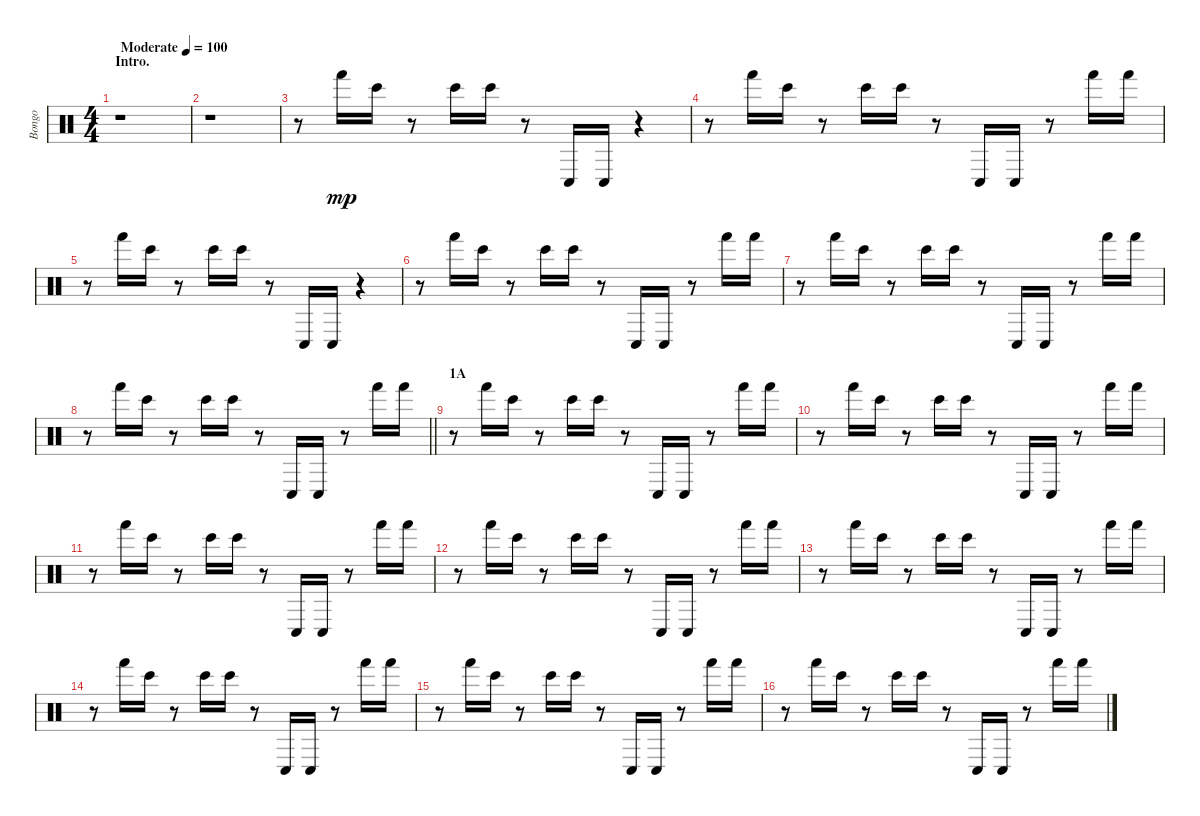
\track ("Bongo" "Bongo") {instrument percussion}
\staff {score}
\articulation defaults
\ts (4 4)
\section ("" "Intro.")
\tempo (100 "Moderate")
\clef neutral
\ks c
r.1{dy mp} |
r.1 |
r.8 "Hand (hit)".16 "Bongo High (hit)".16 r.8 "Bongo High (hit)".16 "Bongo High (hit)".16 r.8 "Conga low (hit)".16 "Conga low (hit)".16 r.4 |
r.8 "Hand (hit)".16 "Bongo High (hit)".16 r.8 "Bongo High (hit)".16 "Bongo High (hit)".16 r.8 "Conga low (hit)".16 "Conga low (hit)".16 r.8 "Hand (hit)".16 "Hand (hit)".16 |
r.8 "Hand (hit)".16 "Bongo High (hit)".16 r.8 "Bongo High (hit)".16 "Bongo High (hit)".16 r.8 "Conga low (hit)".16 "Conga low (hit)".16 r.4 |
r.8 "Hand (hit)".16 "Bongo High (hit)".16 r.8 "Bongo High (hit)".16 "Bongo High (hit)".16 r.8 "Conga low (hit)".16 "Conga low (hit)".16 r.8 "Hand (hit)".16 "Hand (hit)".16 |
r.8 "Hand (hit)".16 "Bongo High (hit)".16 r.8 "Bongo High (hit)".16 "Bongo High (hit)".16 r.8 "Conga low (hit)".16 "Conga low (hit)".16 r.8 "Hand (hit)".16 "Hand (hit)".16 |
\barLineRight lightlight
r.8 "Hand (hit)".16 "Bongo High (hit)".16 r.8 "Bongo High (hit)".16 "Bongo High (hit)".16 r.8 "Conga low (hit)".16 "Conga low (hit)".16 r.8 "Hand (hit)".16 "Hand (hit)".16 |
\section ("" "1A")
r.8 "Hand (hit)".16 "Bongo High (hit)".16 r.8 "Bongo High (hit)".16 "Bongo High (hit)".16 r.8 "Conga low (hit)".16 "Conga low (hit)".16 r.8 "Hand (hit)".16 "Hand (hit)".16 |
r.8 "Hand (hit)".16 "Bongo High (hit)".16 r.8 "Bongo High (hit)".16 "Bongo High (hit)".16 r.8 "Conga low (hit)".16 "Conga low (hit)".16 r.8 "Hand (hit)".16 "Hand (hit)".16 |
r.8 "Hand (hit)".16 "Bongo High (hit)".16 r.8 "Bongo High (hit)".16 "Bongo High (hit)".16 r.8 "Conga low (hit)".16 "Conga low (hit)".16 r.8 "Hand (hit)".16 "Hand (hit)".16 |
r.8 "Hand (hit)".16 "Bongo High (hit)".16 r.8 "Bongo High (hit)".16 "Bongo High (hit)".16 r.8 "Conga low (hit)".16 "Conga low (hit)".16 r.8 "Hand (hit)".16 "Hand (hit)".16 |
r.8 "Hand (hit)".16 "Bongo High (hit)".16 r.8 "Bongo High (hit)".16 "Bongo High (hit)".16 r.8 "Conga low (hit)".16 "Conga low (hit)".16 r.8 "Hand (hit)".16 "Hand (hit)".16 |
r.8 "Hand (hit)".16 "Bongo High (hit)".16 r.8 "Bongo High (hit)".16 "Bongo High (hit)".16 r.8 "Conga low (hit)".16 "Conga low (hit)".16 r.8 "Hand (hit)".16 "Hand (hit)".16 |
r.8 "Hand (hit)".16 "Bongo High (hit)".16 r.8 "Bongo High (hit)".16 "Bongo High (hit)".16 r.8 "Conga low (hit)".16 "Conga low (hit)".16 r.8 "Hand (hit)".16 "Hand (hit)".16 |
r.8 "Hand (hit)".16 "Bongo High (hit)".16 r.8 "Bongo High (hit)".16 "Bongo High (hit)".16 r.8 "Conga low (hit)".16 "Conga low (hit)".16 r.8 "Hand (hit)".16 "Hand (hit)".16
